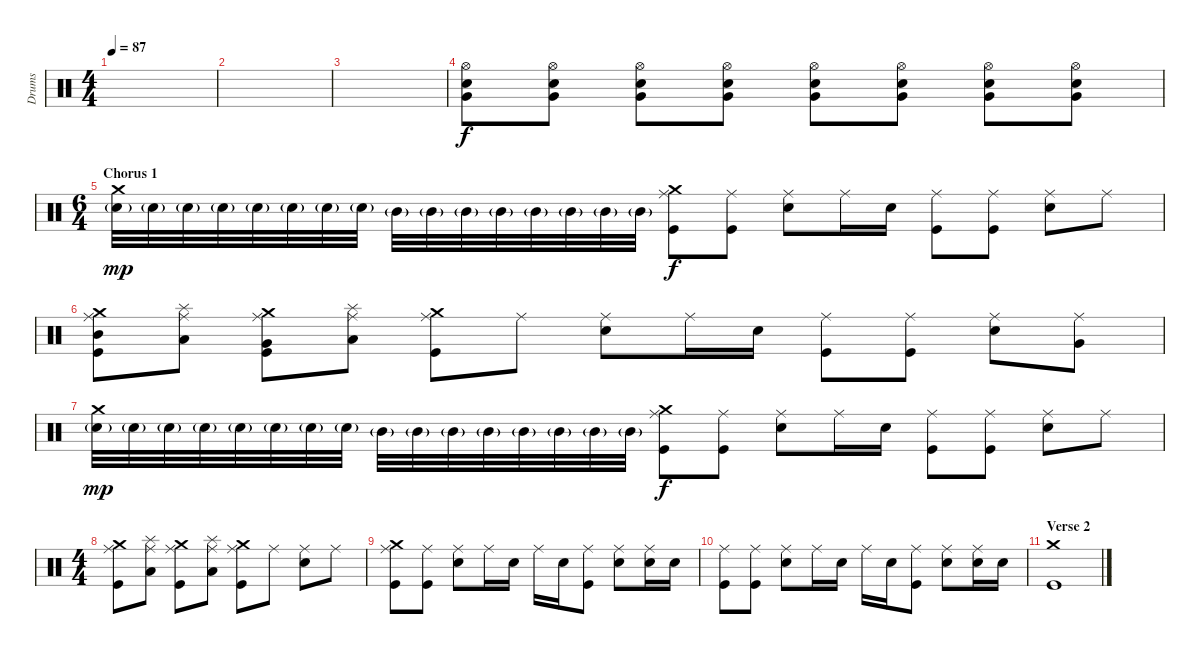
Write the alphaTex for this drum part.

\track ("Drums" "Drums") {instrument percussion}
\staff {score}
\articulation defaults
\ts (4 4)
\tempo 87
\clef neutral
\ks c
|
|
|
("Hi-Hat (open)" "Snare (hit) 2" "Very Low Tom (hit)").8 ("Hi-Hat (open)" "Snare (hit) 2" "Very Low Tom (hit)").8 ("Hi-Hat (open)" "Snare (hit) 2" "Very Low Tom (hit)").8 ("Hi-Hat (open)" "Snare (hit) 2" "Very Low Tom (hit)").8 ("Hi-Hat (open)" "Snare (hit) 2" "Very Low Tom (hit)").8 ("Hi-Hat (open)" "Snare (hit) 2" "Very Low Tom (hit)").8 ("Hi-Hat (open)" "Snare (hit) 2" "Very Low Tom (hit)").8 ("Hi-Hat (open)" "Snare (hit) 2" "Very Low Tom (hit)").8 |
\ts (6 4)
\section ("" "Chorus 1")
("Crash medium (hit)" "Snare (hit) 2"{g}).32{dy mp} "Snare (hit) 2"{g}.32 "Snare (hit) 2"{g}.32 "Snare (hit) 2"{g}.32 "Snare (hit) 2"{g}.32 "Snare (hit) 2"{g}.32 "Snare (hit) 2"{g}.32 "Snare (hit) 2"{g}.32 "Mid Tom (hit)"{g}.32 "Mid Tom (hit)"{g}.32 "Mid Tom (hit)"{g}.32 "Mid Tom (hit)"{g}.32 "Mid Tom (hit)"{g}.32 "Mid Tom (hit)"{g}.32 "Mid Tom (hit)"{g}.32 "Mid Tom (hit)"{g}.32 ("Ride (middle)" "Crash medium (hit)" "Kick (hit)").8{dy f} ("Ride (middle)" "Kick (hit)").8 ("Ride (middle)" "Snare (hit) 2").8 "Ride (middle)".16 "Snare (hit) 2".16 ("Ride (middle)" "Kick (hit)").8 ("Ride (middle)" "Kick (hit)").8 ("Ride (middle)" "Snare (hit) 2").8 "Ride (middle)".8 |
("Ride (middle)" "Crash medium (hit)" "Mid Tom (hit)" "Kick (hit)").8 ("Ride (middle)" "Splash (hit)" "Low Tom (hit)").8 ("Ride (middle)" "Crash medium (hit)" "Very Low Tom (hit)" "Kick (hit)").8 ("Ride (middle)" "Splash (hit)" "Low Floor Tom (hit)").8 ("Ride (middle)" "Crash medium (hit)" "Kick (hit)").8 "Ride (middle)".8 ("Ride (middle)" "Snare (hit) 2").8 "Ride (middle)".16 "Snare (hit) 2".16 ("Ride (middle)" "Kick (hit)").8 ("Ride (middle)" "Kick (hit)").8 ("Ride (middle)" "Snare (hit) 2").8 ("Ride (middle)" "Very Low Tom (hit)").8 |
("Crash medium (hit)" "Snare (hit) 2"{g}).32{dy mp} "Snare (hit) 2"{g}.32 "Snare (hit) 2"{g}.32 "Snare (hit) 2"{g}.32 "Snare (hit) 2"{g}.32 "Snare (hit) 2"{g}.32 "Snare (hit) 2"{g}.32 "Snare (hit) 2"{g}.32 "Mid Tom (hit)"{g}.32 "Mid Tom (hit)"{g}.32 "Mid Tom (hit)"{g}.32 "Mid Tom (hit)"{g}.32 "Mid Tom (hit)"{g}.32 "Mid Tom (hit)"{g}.32 "Mid Tom (hit)"{g}.32 "Mid Tom (hit)"{g}.32 ("Ride (middle)" "Crash medium (hit)" "Kick (hit)").8{dy f} ("Ride (middle)" "Kick (hit)").8 ("Ride (middle)" "Snare (hit) 2").8 "Ride (middle)".16 "Snare (hit) 2".16 ("Ride (middle)" "Kick (hit)").8 ("Ride (middle)" "Kick (hit)").8 ("Ride (middle)" "Snare (hit) 2").8 "Ride (middle)".8 |
\ts (4 4)
("Ride (middle)" "Crash medium (hit)" "Kick (hit)").8 ("Ride (middle)" "Splash (hit)" "Low Tom (hit)").8 ("Ride (middle)" "Crash medium (hit)" "Kick (hit)").8 ("Ride (middle)" "Splash (hit)" "Low Tom (hit)").8 ("Ride (middle)" "Crash medium (hit)" "Kick (hit)").8 "Ride (middle)".8 ("Ride (middle)" "Snare (hit) 2").8 "Ride (middle)".8 |
("Ride (middle)" "Crash medium (hit)" "Kick (hit)").8 ("Ride (middle)" "Kick (hit)").8 ("Ride (middle)" "Snare (hit) 2").8 "Ride (middle)".16 "Snare (hit) 2".16 "Ride (middle)".16 "Snare (hit) 2".16 ("Ride (middle)" "Kick (hit)").8 ("Ride (middle)" "Snare (hit) 2").8 ("Ride (middle)" "Snare (hit) 2").16 "Snare (hit) 2".16 |
("Ride (middle)" "Kick (hit)").8 ("Ride (middle)" "Kick (hit)").8 ("Ride (middle)" "Snare (hit) 2").8 "Ride (middle)".16 "Snare (hit) 2".16 "Ride (middle)".16 "Snare (hit) 2".16 ("Ride (middle)" "Kick (hit)").8 ("Ride (middle)" "Snare (hit) 2").8 ("Ride (middle)" "Snare (hit) 2").16 "Snare (hit) 2".16 |
\section ("" "Verse 2")
("Crash medium (hit)" "Kick (hit)").1
